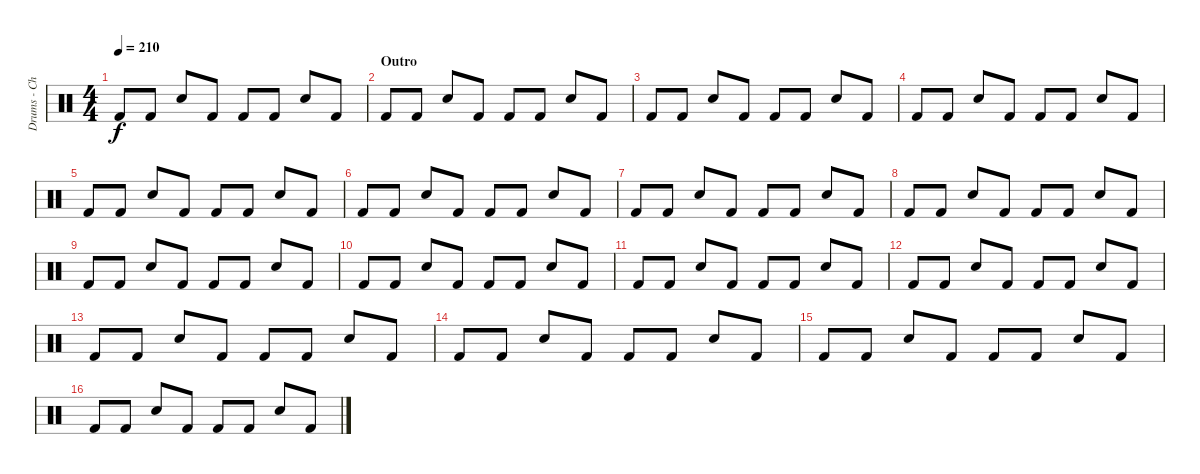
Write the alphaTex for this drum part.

\track ("Drums - Chad Smith" "Drums - Ch") {instrument percussion}
\staff {score}
\articulation defaults
\ts (4 4)
\tempo 210
\clef neutral
\ks c "Kick (hit) 2".8{dy f} "Kick (hit) 2".8 "Electric Snare (hit)".8 "Kick (hit) 2".8 "Kick (hit) 2".8 "Kick (hit) 2".8 "Electric Snare (hit)".8 "Kick (hit) 2".8
|
\section ("" "Outro")
"Kick (hit) 2".8 "Kick (hit) 2".8 "Electric Snare (hit)".8 "Kick (hit) 2".8 "Kick (hit) 2".8 "Kick (hit) 2".8 "Electric Snare (hit)".8 "Kick (hit) 2".8 |
"Kick (hit) 2".8 "Kick (hit) 2".8 "Electric Snare (hit)".8 "Kick (hit) 2".8 "Kick (hit) 2".8 "Kick (hit) 2".8 "Electric Snare (hit)".8 "Kick (hit) 2".8 |
"Kick (hit) 2".8 "Kick (hit) 2".8 "Electric Snare (hit)".8 "Kick (hit) 2".8 "Kick (hit) 2".8 "Kick (hit) 2".8 "Electric Snare (hit)".8 "Kick (hit) 2".8 |
"Kick (hit) 2".8 "Kick (hit) 2".8 "Electric Snare (hit)".8 "Kick (hit) 2".8 "Kick (hit) 2".8 "Kick (hit) 2".8 "Electric Snare (hit)".8 "Kick (hit) 2".8 |
"Kick (hit) 2".8 "Kick (hit) 2".8 "Electric Snare (hit)".8 "Kick (hit) 2".8 "Kick (hit) 2".8 "Kick (hit) 2".8 "Electric Snare (hit)".8 "Kick (hit) 2".8 |
"Kick (hit) 2".8 "Kick (hit) 2".8 "Electric Snare (hit)".8 "Kick (hit) 2".8 "Kick (hit) 2".8 "Kick (hit) 2".8 "Electric Snare (hit)".8 "Kick (hit) 2".8 |
"Kick (hit) 2".8 "Kick (hit) 2".8 "Electric Snare (hit)".8 "Kick (hit) 2".8 "Kick (hit) 2".8 "Kick (hit) 2".8 "Electric Snare (hit)".8 "Kick (hit) 2".8 |
"Kick (hit) 2".8 "Kick (hit) 2".8 "Electric Snare (hit)".8 "Kick (hit) 2".8 "Kick (hit) 2".8 "Kick (hit) 2".8 "Electric Snare (hit)".8 "Kick (hit) 2".8 |
"Kick (hit) 2".8 "Kick (hit) 2".8 "Electric Snare (hit)".8 "Kick (hit) 2".8 "Kick (hit) 2".8 "Kick (hit) 2".8 "Electric Snare (hit)".8 "Kick (hit) 2".8 |
"Kick (hit) 2".8 "Kick (hit) 2".8 "Electric Snare (hit)".8 "Kick (hit) 2".8 "Kick (hit) 2".8 "Kick (hit) 2".8 "Electric Snare (hit)".8 "Kick (hit) 2".8 |
"Kick (hit) 2".8 "Kick (hit) 2".8 "Electric Snare (hit)".8 "Kick (hit) 2".8 "Kick (hit) 2".8 "Kick (hit) 2".8 "Electric Snare (hit)".8 "Kick (hit) 2".8 |
"Kick (hit) 2".8 "Kick (hit) 2".8 "Electric Snare (hit)".8 "Kick (hit) 2".8 "Kick (hit) 2".8 "Kick (hit) 2".8 "Electric Snare (hit)".8 "Kick (hit) 2".8 |
"Kick (hit) 2".8 "Kick (hit) 2".8 "Electric Snare (hit)".8 "Kick (hit) 2".8 "Kick (hit) 2".8 "Kick (hit) 2".8 "Electric Snare (hit)".8 "Kick (hit) 2".8 |
"Kick (hit) 2".8 "Kick (hit) 2".8 "Electric Snare (hit)".8 "Kick (hit) 2".8 "Kick (hit) 2".8 "Kick (hit) 2".8 "Electric Snare (hit)".8 "Kick (hit) 2".8 |
"Kick (hit) 2".8 "Kick (hit) 2".8 "Electric Snare (hit)".8 "Kick (hit) 2".8 "Kick (hit) 2".8 "Kick (hit) 2".8 "Electric Snare (hit)".8 "Kick (hit) 2".8
